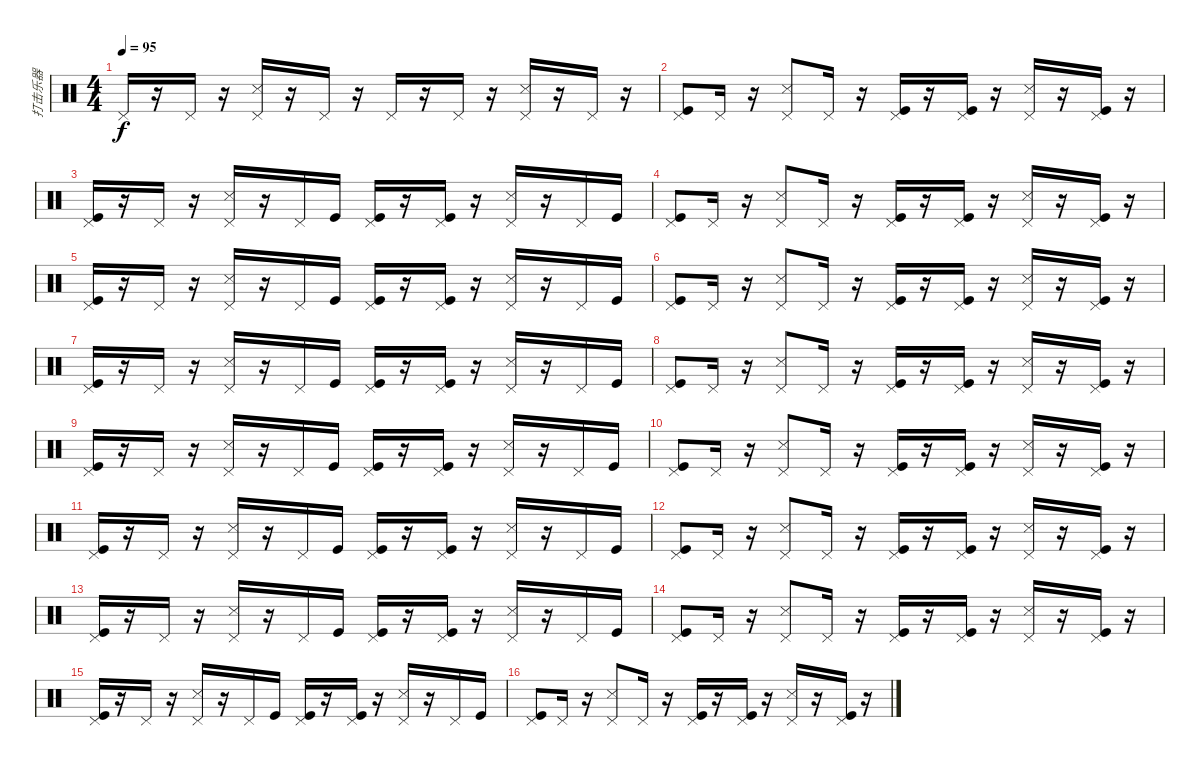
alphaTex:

\track ("打击乐器" "打击乐器") {instrument percussion}
\staff {score}
\articulation defaults
\ts (4 4)
\tempo 95
\clef neutral
\ks c "Pedal Hi-Hat (hit)".16{dy f}
r.16 "Pedal Hi-Hat (hit)".16 r.16 ("Pedal Hi-Hat (hit)" "Snare (side stick) 3").16 r.16 "Pedal Hi-Hat (hit)".16 r.16 "Pedal Hi-Hat (hit)".16 r.16 "Pedal Hi-Hat (hit)".16 r.16 ("Pedal Hi-Hat (hit)" "Snare (side stick) 3").16 r.16 "Pedal Hi-Hat (hit)".16 r.16 |
("Pedal Hi-Hat (hit)" "Kick (hit)").8 "Pedal Hi-Hat (hit)".16 r.16 ("Pedal Hi-Hat (hit)" "Snare (side stick) 3").8 "Pedal Hi-Hat (hit)".16 r.16 ("Kick (hit)" "Pedal Hi-Hat (hit)").16 r.16 ("Kick (hit)" "Pedal Hi-Hat (hit)").16 r.16 ("Snare (side stick) 3" "Pedal Hi-Hat (hit)").16 r.16 ("Kick (hit)" "Pedal Hi-Hat (hit)").16 r.16 |
("Pedal Hi-Hat (hit)" "Kick (hit)").16 r.16 "Pedal Hi-Hat (hit)".16 r.16 ("Pedal Hi-Hat (hit)" "Snare (side stick) 3").16 r.16 "Pedal Hi-Hat (hit)".16 "Kick (hit)".16 ("Pedal Hi-Hat (hit)" "Kick (hit)").16 r.16 ("Pedal Hi-Hat (hit)" "Kick (hit)").16 r.16 ("Pedal Hi-Hat (hit)" "Snare (side stick) 3").16 r.16 "Pedal Hi-Hat (hit)".16 "Kick (hit)".16 |
("Pedal Hi-Hat (hit)" "Kick (hit)").8 "Pedal Hi-Hat (hit)".16 r.16 ("Pedal Hi-Hat (hit)" "Snare (side stick) 3").8 "Pedal Hi-Hat (hit)".16 r.16 ("Kick (hit)" "Pedal Hi-Hat (hit)").16 r.16 ("Kick (hit)" "Pedal Hi-Hat (hit)").16 r.16 ("Snare (side stick) 3" "Pedal Hi-Hat (hit)").16 r.16 ("Kick (hit)" "Pedal Hi-Hat (hit)").16 r.16 |
("Pedal Hi-Hat (hit)" "Kick (hit)").16 r.16 "Pedal Hi-Hat (hit)".16 r.16 ("Pedal Hi-Hat (hit)" "Snare (side stick) 3").16 r.16 "Pedal Hi-Hat (hit)".16 "Kick (hit)".16 ("Pedal Hi-Hat (hit)" "Kick (hit)").16 r.16 ("Pedal Hi-Hat (hit)" "Kick (hit)").16 r.16 ("Pedal Hi-Hat (hit)" "Snare (side stick) 3").16 r.16 "Pedal Hi-Hat (hit)".16 "Kick (hit)".16 |
("Pedal Hi-Hat (hit)" "Kick (hit)").8 "Pedal Hi-Hat (hit)".16 r.16 ("Pedal Hi-Hat (hit)" "Snare (side stick) 3").8 "Pedal Hi-Hat (hit)".16 r.16 ("Kick (hit)" "Pedal Hi-Hat (hit)").16 r.16 ("Kick (hit)" "Pedal Hi-Hat (hit)").16 r.16 ("Snare (side stick) 3" "Pedal Hi-Hat (hit)").16 r.16 ("Kick (hit)" "Pedal Hi-Hat (hit)").16 r.16 |
("Pedal Hi-Hat (hit)" "Kick (hit)").16 r.16 "Pedal Hi-Hat (hit)".16 r.16 ("Pedal Hi-Hat (hit)" "Snare (side stick) 3").16 r.16 "Pedal Hi-Hat (hit)".16 "Kick (hit)".16 ("Pedal Hi-Hat (hit)" "Kick (hit)").16 r.16 ("Pedal Hi-Hat (hit)" "Kick (hit)").16 r.16 ("Pedal Hi-Hat (hit)" "Snare (side stick) 3").16 r.16 "Pedal Hi-Hat (hit)".16 "Kick (hit)".16 |
("Pedal Hi-Hat (hit)" "Kick (hit)").8 "Pedal Hi-Hat (hit)".16 r.16 ("Pedal Hi-Hat (hit)" "Snare (side stick) 3").8 "Pedal Hi-Hat (hit)".16 r.16 ("Kick (hit)" "Pedal Hi-Hat (hit)").16 r.16 ("Kick (hit)" "Pedal Hi-Hat (hit)").16 r.16 ("Snare (side stick) 3" "Pedal Hi-Hat (hit)").16 r.16 ("Kick (hit)" "Pedal Hi-Hat (hit)").16 r.16 |
("Pedal Hi-Hat (hit)" "Kick (hit)").16 r.16 "Pedal Hi-Hat (hit)".16 r.16 ("Pedal Hi-Hat (hit)" "Snare (side stick) 3").16 r.16 "Pedal Hi-Hat (hit)".16 "Kick (hit)".16 ("Pedal Hi-Hat (hit)" "Kick (hit)").16 r.16 ("Pedal Hi-Hat (hit)" "Kick (hit)").16 r.16 ("Pedal Hi-Hat (hit)" "Snare (side stick) 3").16 r.16 "Pedal Hi-Hat (hit)".16 "Kick (hit)".16 |
("Pedal Hi-Hat (hit)" "Kick (hit)").8 "Pedal Hi-Hat (hit)".16 r.16 ("Pedal Hi-Hat (hit)" "Snare (side stick) 3").8 "Pedal Hi-Hat (hit)".16 r.16 ("Kick (hit)" "Pedal Hi-Hat (hit)").16 r.16 ("Kick (hit)" "Pedal Hi-Hat (hit)").16 r.16 ("Snare (side stick) 3" "Pedal Hi-Hat (hit)").16 r.16 ("Kick (hit)" "Pedal Hi-Hat (hit)").16 r.16 |
("Pedal Hi-Hat (hit)" "Kick (hit)").16 r.16 "Pedal Hi-Hat (hit)".16 r.16 ("Pedal Hi-Hat (hit)" "Snare (side stick) 3").16 r.16 "Pedal Hi-Hat (hit)".16 "Kick (hit)".16 ("Pedal Hi-Hat (hit)" "Kick (hit)").16 r.16 ("Pedal Hi-Hat (hit)" "Kick (hit)").16 r.16 ("Pedal Hi-Hat (hit)" "Snare (side stick) 3").16 r.16 "Pedal Hi-Hat (hit)".16 "Kick (hit)".16 |
("Pedal Hi-Hat (hit)" "Kick (hit)").8 "Pedal Hi-Hat (hit)".16 r.16 ("Pedal Hi-Hat (hit)" "Snare (side stick) 3").8 "Pedal Hi-Hat (hit)".16 r.16 ("Kick (hit)" "Pedal Hi-Hat (hit)").16 r.16 ("Kick (hit)" "Pedal Hi-Hat (hit)").16 r.16 ("Snare (side stick) 3" "Pedal Hi-Hat (hit)").16 r.16 ("Kick (hit)" "Pedal Hi-Hat (hit)").16 r.16 |
("Pedal Hi-Hat (hit)" "Kick (hit)").16 r.16 "Pedal Hi-Hat (hit)".16 r.16 ("Pedal Hi-Hat (hit)" "Snare (side stick) 3").16 r.16 "Pedal Hi-Hat (hit)".16 "Kick (hit)".16 ("Pedal Hi-Hat (hit)" "Kick (hit)").16 r.16 ("Pedal Hi-Hat (hit)" "Kick (hit)").16 r.16 ("Pedal Hi-Hat (hit)" "Snare (side stick) 3").16 r.16 "Pedal Hi-Hat (hit)".16 "Kick (hit)".16 |
("Pedal Hi-Hat (hit)" "Kick (hit)").8 "Pedal Hi-Hat (hit)".16 r.16 ("Pedal Hi-Hat (hit)" "Snare (side stick) 3").8 "Pedal Hi-Hat (hit)".16 r.16 ("Kick (hit)" "Pedal Hi-Hat (hit)").16 r.16 ("Kick (hit)" "Pedal Hi-Hat (hit)").16 r.16 ("Snare (side stick) 3" "Pedal Hi-Hat (hit)").16 r.16 ("Kick (hit)" "Pedal Hi-Hat (hit)").16 r.16 |
("Pedal Hi-Hat (hit)" "Kick (hit)").16 r.16 "Pedal Hi-Hat (hit)".16 r.16 ("Pedal Hi-Hat (hit)" "Snare (side stick) 3").16 r.16 "Pedal Hi-Hat (hit)".16 "Kick (hit)".16 ("Pedal Hi-Hat (hit)" "Kick (hit)").16 r.16 ("Pedal Hi-Hat (hit)" "Kick (hit)").16 r.16 ("Pedal Hi-Hat (hit)" "Snare (side stick) 3").16 r.16 "Pedal Hi-Hat (hit)".16 "Kick (hit)".16 |
("Pedal Hi-Hat (hit)" "Kick (hit)").8 "Pedal Hi-Hat (hit)".16 r.16 ("Pedal Hi-Hat (hit)" "Snare (side stick) 3").8 "Pedal Hi-Hat (hit)".16 r.16 ("Kick (hit)" "Pedal Hi-Hat (hit)").16 r.16 ("Kick (hit)" "Pedal Hi-Hat (hit)").16 r.16 ("Snare (side stick) 3" "Pedal Hi-Hat (hit)").16 r.16 ("Kick (hit)" "Pedal Hi-Hat (hit)").16 r.16
